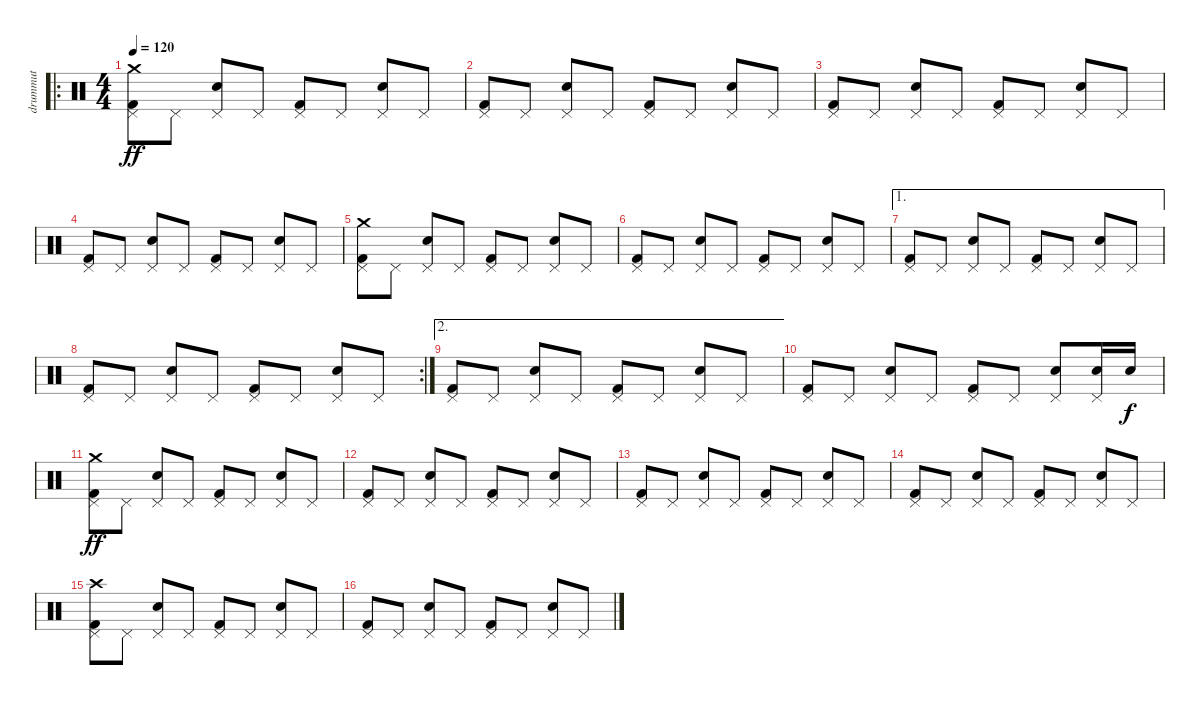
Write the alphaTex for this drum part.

\track ("drummut" "drummut") {instrument percussion}
\staff {score}
\articulation defaults
\ro
\ts (4 4)
\tempo 120
\clef neutral
\ks c
("Kick (hit) 2" "Pedal Hi-Hat (hit)" "Crash medium (hit)").8{dy ff} "Pedal Hi-Hat (hit)".8 ("Electric Snare (hit)" "Pedal Hi-Hat (hit)").8 "Pedal Hi-Hat (hit)".8 ("Kick (hit) 2" "Pedal Hi-Hat (hit)").8 "Pedal Hi-Hat (hit)".8 ("Electric Snare (hit)" "Pedal Hi-Hat (hit)").8 "Pedal Hi-Hat (hit)".8 |
("Kick (hit) 2" "Pedal Hi-Hat (hit)").8 "Pedal Hi-Hat (hit)".8 ("Electric Snare (hit)" "Pedal Hi-Hat (hit)").8 "Pedal Hi-Hat (hit)".8 ("Kick (hit) 2" "Pedal Hi-Hat (hit)").8 "Pedal Hi-Hat (hit)".8 ("Electric Snare (hit)" "Pedal Hi-Hat (hit)").8 "Pedal Hi-Hat (hit)".8 |
("Kick (hit) 2" "Pedal Hi-Hat (hit)").8 "Pedal Hi-Hat (hit)".8 ("Electric Snare (hit)" "Pedal Hi-Hat (hit)").8 "Pedal Hi-Hat (hit)".8 ("Kick (hit) 2" "Pedal Hi-Hat (hit)").8 "Pedal Hi-Hat (hit)".8 ("Electric Snare (hit)" "Pedal Hi-Hat (hit)").8 "Pedal Hi-Hat (hit)".8 |
("Kick (hit) 2" "Pedal Hi-Hat (hit)").8 "Pedal Hi-Hat (hit)".8 ("Electric Snare (hit)" "Pedal Hi-Hat (hit)").8 "Pedal Hi-Hat (hit)".8 ("Kick (hit) 2" "Pedal Hi-Hat (hit)").8 "Pedal Hi-Hat (hit)".8 ("Electric Snare (hit)" "Pedal Hi-Hat (hit)").8 "Pedal Hi-Hat (hit)".8 |
("Kick (hit) 2" "Pedal Hi-Hat (hit)" "Crash medium (hit)").8 "Pedal Hi-Hat (hit)".8 ("Electric Snare (hit)" "Pedal Hi-Hat (hit)").8 "Pedal Hi-Hat (hit)".8 ("Kick (hit) 2" "Pedal Hi-Hat (hit)").8 "Pedal Hi-Hat (hit)".8 ("Electric Snare (hit)" "Pedal Hi-Hat (hit)").8 "Pedal Hi-Hat (hit)".8 |
("Kick (hit) 2" "Pedal Hi-Hat (hit)").8 "Pedal Hi-Hat (hit)".8 ("Electric Snare (hit)" "Pedal Hi-Hat (hit)").8 "Pedal Hi-Hat (hit)".8 ("Kick (hit) 2" "Pedal Hi-Hat (hit)").8 "Pedal Hi-Hat (hit)".8 ("Electric Snare (hit)" "Pedal Hi-Hat (hit)").8 "Pedal Hi-Hat (hit)".8 |
\ae 1
("Kick (hit) 2" "Pedal Hi-Hat (hit)").8 "Pedal Hi-Hat (hit)".8 ("Electric Snare (hit)" "Pedal Hi-Hat (hit)").8 "Pedal Hi-Hat (hit)".8 ("Kick (hit) 2" "Pedal Hi-Hat (hit)").8 "Pedal Hi-Hat (hit)".8 ("Electric Snare (hit)" "Pedal Hi-Hat (hit)").8 "Pedal Hi-Hat (hit)".8 |
\rc 2
("Kick (hit) 2" "Pedal Hi-Hat (hit)").8 "Pedal Hi-Hat (hit)".8 ("Electric Snare (hit)" "Pedal Hi-Hat (hit)").8 "Pedal Hi-Hat (hit)".8 ("Kick (hit) 2" "Pedal Hi-Hat (hit)").8 "Pedal Hi-Hat (hit)".8 ("Electric Snare (hit)" "Pedal Hi-Hat (hit)").8 "Pedal Hi-Hat (hit)".8 |
\ae 2
("Kick (hit) 2" "Pedal Hi-Hat (hit)").8 "Pedal Hi-Hat (hit)".8 ("Electric Snare (hit)" "Pedal Hi-Hat (hit)").8 "Pedal Hi-Hat (hit)".8 ("Kick (hit) 2" "Pedal Hi-Hat (hit)").8 "Pedal Hi-Hat (hit)".8 ("Electric Snare (hit)" "Pedal Hi-Hat (hit)").8 "Pedal Hi-Hat (hit)".8 |
("Kick (hit) 2" "Pedal Hi-Hat (hit)").8 "Pedal Hi-Hat (hit)".8 ("Electric Snare (hit)" "Pedal Hi-Hat (hit)").8 "Pedal Hi-Hat (hit)".8 ("Kick (hit) 2" "Pedal Hi-Hat (hit)").8 "Pedal Hi-Hat (hit)".8 ("Electric Snare (hit)" "Pedal Hi-Hat (hit)").8 ("Electric Snare (hit)" "Pedal Hi-Hat (hit)").16 "Electric Snare (hit)".16{dy f} |
("Kick (hit) 2" "Pedal Hi-Hat (hit)" "Crash medium (hit)").8{dy ff} "Pedal Hi-Hat (hit)".8 ("Electric Snare (hit)" "Pedal Hi-Hat (hit)").8 "Pedal Hi-Hat (hit)".8 ("Kick (hit) 2" "Pedal Hi-Hat (hit)").8 "Pedal Hi-Hat (hit)".8 ("Electric Snare (hit)" "Pedal Hi-Hat (hit)").8 "Pedal Hi-Hat (hit)".8 |
("Kick (hit) 2" "Pedal Hi-Hat (hit)").8 "Pedal Hi-Hat (hit)".8 ("Electric Snare (hit)" "Pedal Hi-Hat (hit)").8 "Pedal Hi-Hat (hit)".8 ("Kick (hit) 2" "Pedal Hi-Hat (hit)").8 "Pedal Hi-Hat (hit)".8 ("Electric Snare (hit)" "Pedal Hi-Hat (hit)").8 "Pedal Hi-Hat (hit)".8 |
("Kick (hit) 2" "Pedal Hi-Hat (hit)").8 "Pedal Hi-Hat (hit)".8 ("Electric Snare (hit)" "Pedal Hi-Hat (hit)").8 "Pedal Hi-Hat (hit)".8 ("Kick (hit) 2" "Pedal Hi-Hat (hit)").8 "Pedal Hi-Hat (hit)".8 ("Electric Snare (hit)" "Pedal Hi-Hat (hit)").8 "Pedal Hi-Hat (hit)".8 |
("Kick (hit) 2" "Pedal Hi-Hat (hit)").8 "Pedal Hi-Hat (hit)".8 ("Electric Snare (hit)" "Pedal Hi-Hat (hit)").8 "Pedal Hi-Hat (hit)".8 ("Kick (hit) 2" "Pedal Hi-Hat (hit)").8 "Pedal Hi-Hat (hit)".8 ("Electric Snare (hit)" "Pedal Hi-Hat (hit)").8 "Pedal Hi-Hat (hit)".8 |
("Kick (hit) 2" "Pedal Hi-Hat (hit)" "Crash high (hit)").8 "Pedal Hi-Hat (hit)".8 ("Electric Snare (hit)" "Pedal Hi-Hat (hit)").8 "Pedal Hi-Hat (hit)".8 ("Kick (hit) 2" "Pedal Hi-Hat (hit)").8 "Pedal Hi-Hat (hit)".8 ("Electric Snare (hit)" "Pedal Hi-Hat (hit)").8 "Pedal Hi-Hat (hit)".8 |
("Kick (hit) 2" "Pedal Hi-Hat (hit)").8 "Pedal Hi-Hat (hit)".8 ("Electric Snare (hit)" "Pedal Hi-Hat (hit)").8 "Pedal Hi-Hat (hit)".8 ("Kick (hit) 2" "Pedal Hi-Hat (hit)").8 "Pedal Hi-Hat (hit)".8 ("Electric Snare (hit)" "Pedal Hi-Hat (hit)").8 "Pedal Hi-Hat (hit)".8
